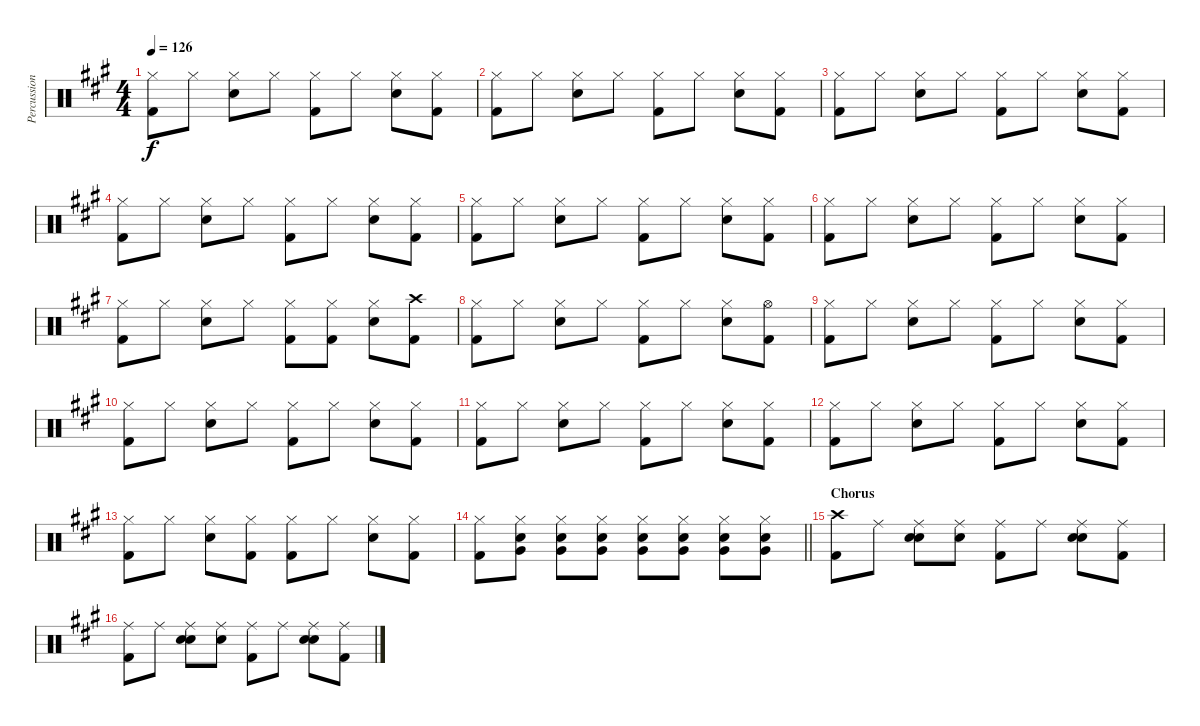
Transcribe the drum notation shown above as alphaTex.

\track ("Percussion" "Percussion") {instrument percussion}
\staff {score}
\articulation defaults
\ts (4 4)
\tempo 126
\clef neutral
\ks a
("Hi-Hat (closed)" "Kick (hit) 2").8{dy f} "Hi-Hat (closed)".8 ("Hi-Hat (closed)" "Snare (hit) 2").8 "Hi-Hat (closed)".8 ("Hi-Hat (closed)" "Kick (hit) 2").8 "Hi-Hat (closed)".8 ("Hi-Hat (closed)" "Snare (hit) 2").8 ("Hi-Hat (closed)" "Kick (hit) 2").8 |
("Hi-Hat (closed)" "Kick (hit) 2").8 "Hi-Hat (closed)".8 ("Hi-Hat (closed)" "Snare (hit) 2").8 "Hi-Hat (closed)".8 ("Hi-Hat (closed)" "Kick (hit) 2").8 "Hi-Hat (closed)".8 ("Hi-Hat (closed)" "Snare (hit) 2").8 ("Hi-Hat (closed)" "Kick (hit) 2").8 |
("Hi-Hat (closed)" "Kick (hit) 2").8 "Hi-Hat (closed)".8 ("Hi-Hat (closed)" "Snare (hit) 2").8 "Hi-Hat (closed)".8 ("Hi-Hat (closed)" "Kick (hit) 2").8 "Hi-Hat (closed)".8 ("Hi-Hat (closed)" "Snare (hit) 2").8 ("Hi-Hat (closed)" "Kick (hit) 2").8 |
("Hi-Hat (closed)" "Kick (hit) 2").8 "Hi-Hat (closed)".8 ("Hi-Hat (closed)" "Snare (hit) 2").8 "Hi-Hat (closed)".8 ("Hi-Hat (closed)" "Kick (hit) 2").8 "Hi-Hat (closed)".8 ("Hi-Hat (closed)" "Snare (hit) 2").8 ("Hi-Hat (closed)" "Kick (hit) 2").8 |
("Hi-Hat (closed)" "Kick (hit) 2").8 "Hi-Hat (closed)".8 ("Hi-Hat (closed)" "Snare (hit) 2").8 "Hi-Hat (closed)".8 ("Hi-Hat (closed)" "Kick (hit) 2").8 "Hi-Hat (closed)".8 ("Hi-Hat (closed)" "Snare (hit) 2").8 ("Hi-Hat (closed)" "Kick (hit) 2").8 |
("Hi-Hat (closed)" "Kick (hit) 2").8 "Hi-Hat (closed)".8 ("Hi-Hat (closed)" "Snare (hit) 2").8 "Hi-Hat (closed)".8 ("Hi-Hat (closed)" "Kick (hit) 2").8 "Hi-Hat (closed)".8 ("Hi-Hat (closed)" "Snare (hit) 2").8 ("Hi-Hat (closed)" "Kick (hit) 2").8 |
("Hi-Hat (closed)" "Kick (hit) 2").8 "Hi-Hat (closed)".8 ("Hi-Hat (closed)" "Snare (hit) 2").8 "Hi-Hat (closed)".8 ("Hi-Hat (closed)" "Kick (hit) 2").8 ("Hi-Hat (closed)" "Kick (hit) 2").8 ("Hi-Hat (closed)" "Snare (hit) 2").8 ("Crash high (hit)" "Kick (hit) 2").8 |
("Hi-Hat (closed)" "Kick (hit) 2").8 "Hi-Hat (closed)".8 ("Hi-Hat (closed)" "Snare (hit) 2").8 "Hi-Hat (closed)".8 ("Hi-Hat (closed)" "Kick (hit) 2").8 "Hi-Hat (closed)".8 ("Hi-Hat (closed)" "Snare (hit) 2").8 ("Hi-Hat (open)" "Kick (hit) 2").8 |
("Hi-Hat (closed)" "Kick (hit) 2").8 "Hi-Hat (closed)".8 ("Hi-Hat (closed)" "Snare (hit) 2").8 "Hi-Hat (closed)".8 ("Hi-Hat (closed)" "Kick (hit) 2").8 "Hi-Hat (closed)".8 ("Hi-Hat (closed)" "Snare (hit) 2").8 ("Hi-Hat (closed)" "Kick (hit) 2").8 |
("Hi-Hat (closed)" "Kick (hit) 2").8 "Hi-Hat (closed)".8 ("Hi-Hat (closed)" "Snare (hit) 2").8 "Hi-Hat (closed)".8 ("Hi-Hat (closed)" "Kick (hit) 2").8 "Hi-Hat (closed)".8 ("Hi-Hat (closed)" "Snare (hit) 2").8 ("Hi-Hat (closed)" "Kick (hit) 2").8 |
("Hi-Hat (closed)" "Kick (hit) 2").8 "Hi-Hat (closed)".8 ("Hi-Hat (closed)" "Snare (hit) 2").8 "Hi-Hat (closed)".8 ("Hi-Hat (closed)" "Kick (hit) 2").8 "Hi-Hat (closed)".8 ("Hi-Hat (closed)" "Snare (hit) 2").8 ("Hi-Hat (closed)" "Kick (hit) 2").8 |
("Hi-Hat (closed)" "Kick (hit) 2").8 "Hi-Hat (closed)".8 ("Hi-Hat (closed)" "Snare (hit) 2").8 "Hi-Hat (closed)".8 ("Hi-Hat (closed)" "Kick (hit) 2").8 "Hi-Hat (closed)".8 ("Hi-Hat (closed)" "Snare (hit) 2").8 ("Hi-Hat (closed)" "Kick (hit) 2").8 |
("Hi-Hat (closed)" "Kick (hit) 2").8 "Hi-Hat (closed)".8 ("Hi-Hat (closed)" "Snare (hit) 2").8 ("Hi-Hat (closed)" "Kick (hit) 2").8 ("Hi-Hat (closed)" "Kick (hit) 2").8 "Hi-Hat (closed)".8 ("Hi-Hat (closed)" "Snare (hit) 2").8 ("Hi-Hat (closed)" "Kick (hit) 2").8 |
\barLineRight lightlight
("Hi-Hat (closed)" "Kick (hit) 2").8 ("Hi-Hat (closed)" "Very Low Tom (hit)" "Snare (hit) 2").8 ("Hi-Hat (closed)" "Very Low Tom (hit)" "Snare (hit) 2").8 ("Hi-Hat (closed)" "Very Low Tom (hit)" "Snare (hit) 2").8 ("Hi-Hat (closed)" "Very Low Tom (hit)" "Snare (hit) 2").8 ("Hi-Hat (closed)" "Very Low Tom (hit)" "Snare (hit) 2").8 ("Hi-Hat (closed)" "Very Low Tom (hit)" "Snare (hit) 2").8 ("Hi-Hat (closed)" "Very Low Tom (hit)" "Snare (hit) 2").8 |
\section ("" "Chorus")
("Crash high (hit)" "Kick (hit) 2").8 "Ride (middle)".8 ("Ride (middle)" "Hand Clap (hit)" "Snare (hit) 2").8 ("Ride (middle)" "Hand Clap (hit)").8 ("Ride (middle)" "Kick (hit) 2").8 "Ride (middle)".8 ("Ride (middle)" "Hand Clap (hit)" "Snare (hit) 2").8 ("Ride (middle)" "Kick (hit) 2").8 |
("Ride (middle)" "Kick (hit) 2").8 "Ride (middle)".8 ("Ride (middle)" "Hand Clap (hit)" "Snare (hit) 2").8 ("Ride (middle)" "Hand Clap (hit)").8 ("Ride (middle)" "Kick (hit) 2").8 "Ride (middle)".8 ("Ride (middle)" "Hand Clap (hit)" "Snare (hit) 2").8 ("Ride (middle)" "Kick (hit) 2").8
